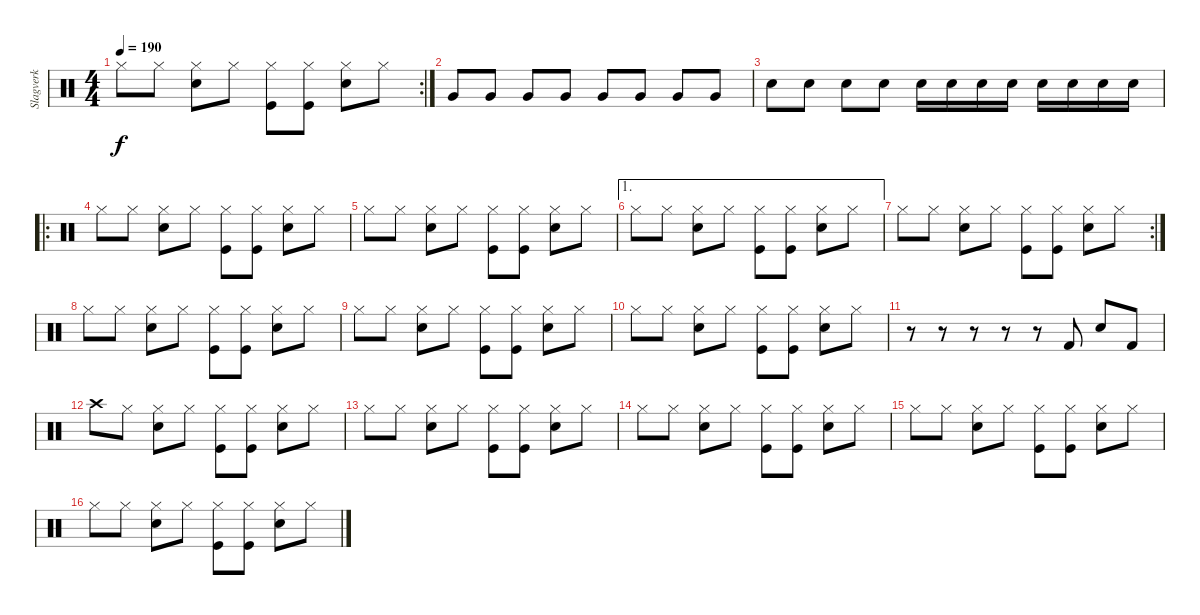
\track ("Slagverk" "Slagverk") {instrument percussion}
\staff {score}
\articulation defaults
\rc 2
\ts (4 4)
\tempo 190
\clef neutral
\ks c "Hi-Hat (closed)".8{dy f} "Hi-Hat (closed)".8
("Snare (hit) 2" "Hi-Hat (closed)").8 "Hi-Hat (closed)".8 ("Kick (hit)" "Hi-Hat (closed)").8 ("Kick (hit)" "Hi-Hat (closed)").8 ("Snare (hit) 2" "Hi-Hat (closed)").8 "Hi-Hat (closed)".8 |
"Very Low Tom (hit)".8 "Very Low Tom (hit)".8 "Very Low Tom (hit)".8 "Very Low Tom (hit)".8 "Very Low Tom (hit)".8 "Very Low Tom (hit)".8 "Very Low Tom (hit)".8 "Very Low Tom (hit)".8 |
"Snare (hit) 2".8 "Snare (hit) 2".8 "Snare (hit) 2".8 "Snare (hit) 2".8 "Snare (hit) 2".16 "Snare (hit) 2".16 "Snare (hit) 2".16 "Snare (hit) 2".16 "Snare (hit) 2".16 "Snare (hit) 2".16 "Snare (hit) 2".16 "Snare (hit) 2".16 |
\ro "Hi-Hat (closed)".8 "Hi-Hat (closed)".8
("Snare (hit) 2" "Hi-Hat (closed)").8 "Hi-Hat (closed)".8 ("Kick (hit)" "Hi-Hat (closed)").8 ("Kick (hit)" "Hi-Hat (closed)").8 ("Snare (hit) 2" "Hi-Hat (closed)").8 "Hi-Hat (closed)".8 |
"Hi-Hat (closed)".8 "Hi-Hat (closed)".8 ("Snare (hit) 2" "Hi-Hat (closed)").8 "Hi-Hat (closed)".8 ("Kick (hit)" "Hi-Hat (closed)").8 ("Kick (hit)" "Hi-Hat (closed)").8 ("Snare (hit) 2" "Hi-Hat (closed)").8 "Hi-Hat (closed)".8 |
\ae 1 "Hi-Hat (closed)".8 "Hi-Hat (closed)".8
("Snare (hit) 2" "Hi-Hat (closed)").8 "Hi-Hat (closed)".8 ("Kick (hit)" "Hi-Hat (closed)").8 ("Kick (hit)" "Hi-Hat (closed)").8 ("Snare (hit) 2" "Hi-Hat (closed)").8 "Hi-Hat (closed)".8 |
\rc 2 "Hi-Hat (closed)".8 "Hi-Hat (closed)".8
("Snare (hit) 2" "Hi-Hat (closed)").8 "Hi-Hat (closed)".8 ("Kick (hit)" "Hi-Hat (closed)").8 ("Kick (hit)" "Hi-Hat (closed)").8 ("Snare (hit) 2" "Hi-Hat (closed)").8 "Hi-Hat (closed)".8 |
"Hi-Hat (closed)".8 "Hi-Hat (closed)".8 ("Snare (hit) 2" "Hi-Hat (closed)").8 "Hi-Hat (closed)".8 ("Kick (hit)" "Hi-Hat (closed)").8 ("Kick (hit)" "Hi-Hat (closed)").8 ("Snare (hit) 2" "Hi-Hat (closed)").8 "Hi-Hat (closed)".8 |
"Hi-Hat (closed)".8 "Hi-Hat (closed)".8 ("Snare (hit) 2" "Hi-Hat (closed)").8 "Hi-Hat (closed)".8 ("Kick (hit)" "Hi-Hat (closed)").8 ("Kick (hit)" "Hi-Hat (closed)").8 ("Snare (hit) 2" "Hi-Hat (closed)").8 "Hi-Hat (closed)".8 |
"Hi-Hat (closed)".8 "Hi-Hat (closed)".8 ("Snare (hit) 2" "Hi-Hat (closed)").8 "Hi-Hat (closed)".8 ("Kick (hit)" "Hi-Hat (closed)").8 ("Kick (hit)" "Hi-Hat (closed)").8 ("Snare (hit) 2" "Hi-Hat (closed)").8 "Hi-Hat (closed)".8 |
r.8 r.8 r.8 r.8 r.8 "Kick (hit) 2".8 "Electric Snare (hit)".8 "Kick (hit) 2".8 |
"Crash high (hit)".8 "Hi-Hat (closed)".8 ("Snare (hit) 2" "Hi-Hat (closed)").8 "Hi-Hat (closed)".8 ("Kick (hit)" "Hi-Hat (closed)").8 ("Kick (hit)" "Hi-Hat (closed)").8 ("Snare (hit) 2" "Hi-Hat (closed)").8 "Hi-Hat (closed)".8 |
"Hi-Hat (closed)".8 "Hi-Hat (closed)".8 ("Snare (hit) 2" "Hi-Hat (closed)").8 "Hi-Hat (closed)".8 ("Kick (hit)" "Hi-Hat (closed)").8 ("Kick (hit)" "Hi-Hat (closed)").8 ("Snare (hit) 2" "Hi-Hat (closed)").8 "Hi-Hat (closed)".8 |
"Hi-Hat (closed)".8 "Hi-Hat (closed)".8 ("Snare (hit) 2" "Hi-Hat (closed)").8 "Hi-Hat (closed)".8 ("Kick (hit)" "Hi-Hat (closed)").8 ("Kick (hit)" "Hi-Hat (closed)").8 ("Snare (hit) 2" "Hi-Hat (closed)").8 "Hi-Hat (closed)".8 |
"Hi-Hat (closed)".8 "Hi-Hat (closed)".8 ("Snare (hit) 2" "Hi-Hat (closed)").8 "Hi-Hat (closed)".8 ("Kick (hit)" "Hi-Hat (closed)").8 ("Kick (hit)" "Hi-Hat (closed)").8 ("Snare (hit) 2" "Hi-Hat (closed)").8 "Hi-Hat (closed)".8 |
"Hi-Hat (closed)".8 "Hi-Hat (closed)".8 ("Snare (hit) 2" "Hi-Hat (closed)").8 "Hi-Hat (closed)".8 ("Kick (hit)" "Hi-Hat (closed)").8 ("Kick (hit)" "Hi-Hat (closed)").8 ("Snare (hit) 2" "Hi-Hat (closed)").8 "Hi-Hat (closed)".8
